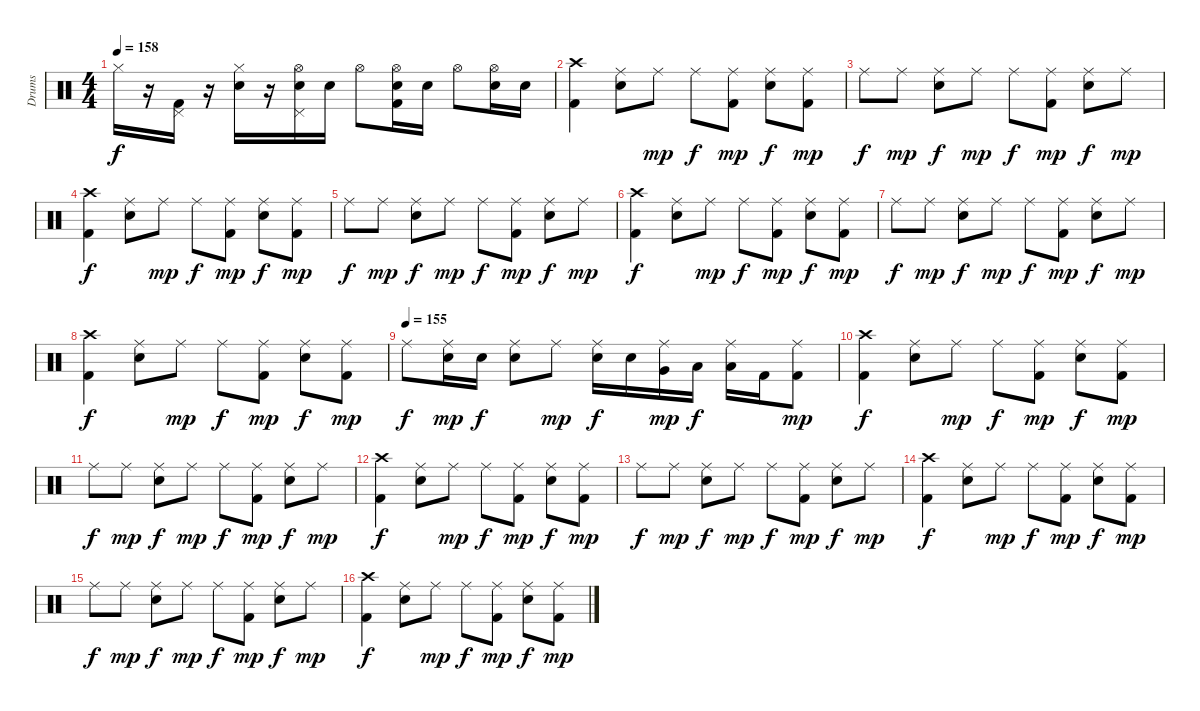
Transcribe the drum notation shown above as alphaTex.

\track ("Drums" "Drums") {instrument percussion}
\staff {score}
\articulation defaults
\ts (4 4)
\tempo 158
\clef neutral
\ks c "Hi-Hat (closed)".16{dy f}
r.16 ("Kick (hit) 2" "Pedal Hi-Hat (hit)").16 r.16 ("Electric Snare (hit)" "Hi-Hat (closed)").16 r.16 ("Hi-Hat (open)" "Electric Snare (hit)" "Pedal Hi-Hat (hit)").16 "Electric Snare (hit)".16 "Hi-Hat (open)".8 ("Hi-Hat (open)" "Electric Snare (hit)" "Kick (hit) 2").16 "Electric Snare (hit)".16 "Hi-Hat (open)".8 ("Hi-Hat (open)" "Electric Snare (hit)").16 "Electric Snare (hit)".16 |
("Kick (hit) 2" "Crash high (hit)").4 ("Ride (middle)" "Electric Snare (hit)").8 "Ride (middle)".8{dy mp} "Ride (middle)".8{dy f} ("Kick (hit) 2" "Ride (middle)").8{dy mp} ("Electric Snare (hit)" "Ride (middle)").8{dy f} ("Kick (hit) 2" "Ride (middle)").8{dy mp} |
"Ride (middle)".8{dy f} "Ride (middle)".8{dy mp} ("Electric Snare (hit)" "Ride (middle)").8{dy f} "Ride (middle)".8{dy mp} "Ride (middle)".8{dy f} ("Kick (hit) 2" "Ride (middle)").8{dy mp} ("Electric Snare (hit)" "Ride (middle)").8{dy f} "Ride (middle)".8{dy mp} |
("Kick (hit) 2" "Crash high (hit)").4{dy f} ("Ride (middle)" "Electric Snare (hit)").8 "Ride (middle)".8{dy mp} "Ride (middle)".8{dy f} ("Kick (hit) 2" "Ride (middle)").8{dy mp} ("Electric Snare (hit)" "Ride (middle)").8{dy f} ("Kick (hit) 2" "Ride (middle)").8{dy mp} |
"Ride (middle)".8{dy f} "Ride (middle)".8{dy mp} ("Electric Snare (hit)" "Ride (middle)").8{dy f} "Ride (middle)".8{dy mp} "Ride (middle)".8{dy f} ("Kick (hit) 2" "Ride (middle)").8{dy mp} ("Electric Snare (hit)" "Ride (middle)").8{dy f} "Ride (middle)".8{dy mp} |
("Kick (hit) 2" "Crash high (hit)").4{dy f} ("Ride (middle)" "Electric Snare (hit)").8 "Ride (middle)".8{dy mp} "Ride (middle)".8{dy f} ("Kick (hit) 2" "Ride (middle)").8{dy mp} ("Electric Snare (hit)" "Ride (middle)").8{dy f} ("Kick (hit) 2" "Ride (middle)").8{dy mp} |
"Ride (middle)".8{dy f} "Ride (middle)".8{dy mp} ("Electric Snare (hit)" "Ride (middle)").8{dy f} "Ride (middle)".8{dy mp} "Ride (middle)".8{dy f} ("Kick (hit) 2" "Ride (middle)").8{dy mp} ("Electric Snare (hit)" "Ride (middle)").8{dy f} "Ride (middle)".8{dy mp} |
("Kick (hit) 2" "Crash high (hit)").4{dy f} ("Ride (middle)" "Electric Snare (hit)").8 "Ride (middle)".8{dy mp} "Ride (middle)".8{dy f} ("Kick (hit) 2" "Ride (middle)").8{dy mp} ("Electric Snare (hit)" "Ride (middle)").8{dy f} ("Kick (hit) 2" "Ride (middle)").8{dy mp} |
\tempo (155)
"Ride (middle)".8{dy f} ("Electric Snare (hit)" "Ride (middle)").16{dy mp} "Electric Snare (hit)".16{dy f} ("Electric Snare (hit)" "Ride (middle)").8 "Ride (middle)".8{dy mp} ("Electric Snare (hit)" "Ride (middle)").16{dy f} "Electric Snare (hit)".16 ("Very Low Tom (hit)" "Ride (middle)").16{dy mp} "Low Floor Tom (hit)".16{dy f} ("Low Floor Tom (hit)" "Ride (middle)").16 "Kick (hit) 2".16 ("Kick (hit) 2" "Ride (middle)").8{dy mp} |
("Kick (hit) 2" "Crash high (hit)").4{dy f} ("Ride (middle)" "Electric Snare (hit)").8 "Ride (middle)".8{dy mp} "Ride (middle)".8{dy f} ("Kick (hit) 2" "Ride (middle)").8{dy mp} ("Electric Snare (hit)" "Ride (middle)").8{dy f} ("Kick (hit) 2" "Ride (middle)").8{dy mp} |
"Ride (middle)".8{dy f} "Ride (middle)".8{dy mp} ("Electric Snare (hit)" "Ride (middle)").8{dy f} "Ride (middle)".8{dy mp} "Ride (middle)".8{dy f} ("Kick (hit) 2" "Ride (middle)").8{dy mp} ("Electric Snare (hit)" "Ride (middle)").8{dy f} "Ride (middle)".8{dy mp} |
("Kick (hit) 2" "Crash high (hit)").4{dy f} ("Ride (middle)" "Electric Snare (hit)").8 "Ride (middle)".8{dy mp} "Ride (middle)".8{dy f} ("Kick (hit) 2" "Ride (middle)").8{dy mp} ("Electric Snare (hit)" "Ride (middle)").8{dy f} ("Kick (hit) 2" "Ride (middle)").8{dy mp} |
"Ride (middle)".8{dy f} "Ride (middle)".8{dy mp} ("Electric Snare (hit)" "Ride (middle)").8{dy f} "Ride (middle)".8{dy mp} "Ride (middle)".8{dy f} ("Kick (hit) 2" "Ride (middle)").8{dy mp} ("Electric Snare (hit)" "Ride (middle)").8{dy f} "Ride (middle)".8{dy mp} |
("Kick (hit) 2" "Crash high (hit)").4{dy f} ("Ride (middle)" "Electric Snare (hit)").8 "Ride (middle)".8{dy mp} "Ride (middle)".8{dy f} ("Kick (hit) 2" "Ride (middle)").8{dy mp} ("Electric Snare (hit)" "Ride (middle)").8{dy f} ("Kick (hit) 2" "Ride (middle)").8{dy mp} |
"Ride (middle)".8{dy f} "Ride (middle)".8{dy mp} ("Electric Snare (hit)" "Ride (middle)").8{dy f} "Ride (middle)".8{dy mp} "Ride (middle)".8{dy f} ("Kick (hit) 2" "Ride (middle)").8{dy mp} ("Electric Snare (hit)" "Ride (middle)").8{dy f} "Ride (middle)".8{dy mp} |
("Kick (hit) 2" "Crash high (hit)").4{dy f} ("Ride (middle)" "Electric Snare (hit)").8 "Ride (middle)".8{dy mp} "Ride (middle)".8{dy f} ("Kick (hit) 2" "Ride (middle)").8{dy mp} ("Electric Snare (hit)" "Ride (middle)").8{dy f} ("Kick (hit) 2" "Ride (middle)").8{dy mp}
